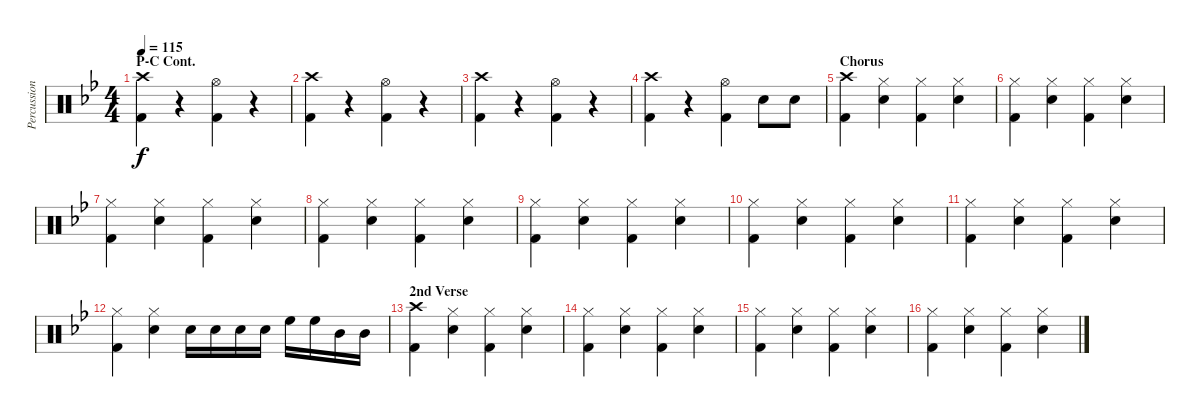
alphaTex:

\track ("Percussion" "Percussion") {instrument percussion}
\staff {score}
\articulation defaults
\ts (4 4)
\section ("" "P-C Cont.")
\tempo 115
\clef neutral
\ks bb
("Crash high (hit)" "Kick (hit) 2").4{dy f} r.4 ("Hi-Hat (open)" "Kick (hit) 2").4 r.4 |
("Crash high (hit)" "Kick (hit) 2").4 r.4 ("Hi-Hat (open)" "Kick (hit) 2").4 r.4 |
("Crash high (hit)" "Kick (hit) 2").4 r.4 ("Hi-Hat (open)" "Kick (hit) 2").4 r.4 |
("Crash high (hit)" "Kick (hit) 2").4 r.4 ("Hi-Hat (open)" "Kick (hit) 2").4 "Snare (hit) 2".8 "Snare (hit) 2".8 |
\section ("" "Chorus")
("Crash high (hit)" "Kick (hit) 2").4 ("Hi-Hat (closed)" "Snare (hit) 2").4 ("Hi-Hat (closed)" "Kick (hit) 2").4 ("Hi-Hat (closed)" "Snare (hit) 2").4 |
("Hi-Hat (closed)" "Kick (hit) 2").4 ("Hi-Hat (closed)" "Snare (hit) 2").4 ("Hi-Hat (closed)" "Kick (hit) 2").4 ("Hi-Hat (closed)" "Snare (hit) 2").4 |
("Hi-Hat (closed)" "Kick (hit) 2").4 ("Hi-Hat (closed)" "Snare (hit) 2").4 ("Hi-Hat (closed)" "Kick (hit) 2").4 ("Hi-Hat (closed)" "Snare (hit) 2").4 |
("Hi-Hat (closed)" "Kick (hit) 2").4 ("Hi-Hat (closed)" "Snare (hit) 2").4 ("Hi-Hat (closed)" "Kick (hit) 2").4 ("Hi-Hat (closed)" "Snare (hit) 2").4 |
("Hi-Hat (closed)" "Kick (hit) 2").4 ("Hi-Hat (closed)" "Snare (hit) 2").4 ("Hi-Hat (closed)" "Kick (hit) 2").4 ("Hi-Hat (closed)" "Snare (hit) 2").4 |
("Hi-Hat (closed)" "Kick (hit) 2").4 ("Hi-Hat (closed)" "Snare (hit) 2").4 ("Hi-Hat (closed)" "Kick (hit) 2").4 ("Hi-Hat (closed)" "Snare (hit) 2").4 |
("Hi-Hat (closed)" "Kick (hit) 2").4 ("Hi-Hat (closed)" "Snare (hit) 2").4 ("Hi-Hat (closed)" "Kick (hit) 2").4 ("Hi-Hat (closed)" "Snare (hit) 2").4 |
("Hi-Hat (closed)" "Kick (hit) 2").4 ("Hi-Hat (closed)" "Snare (hit) 2").4 "Snare (hit) 2".16 "Snare (hit) 2".16 "Snare (hit) 2".16 "Snare (hit) 2".16 "High Floor Tom (hit)".16 "High Floor Tom (hit)".16 "Mid Tom (hit)".16 "Mid Tom (hit)".16 |
\section ("" "2nd Verse")
("Crash high (hit)" "Kick (hit) 2").4 ("Hi-Hat (closed)" "Snare (hit) 2").4 ("Hi-Hat (closed)" "Kick (hit) 2").4 ("Hi-Hat (closed)" "Snare (hit) 2").4 |
("Hi-Hat (closed)" "Kick (hit) 2").4 ("Hi-Hat (closed)" "Snare (hit) 2").4 ("Hi-Hat (closed)" "Kick (hit) 2").4 ("Hi-Hat (closed)" "Snare (hit) 2").4 |
("Hi-Hat (closed)" "Kick (hit) 2").4 ("Hi-Hat (closed)" "Snare (hit) 2").4 ("Hi-Hat (closed)" "Kick (hit) 2").4 ("Hi-Hat (closed)" "Snare (hit) 2").4 |
("Hi-Hat (closed)" "Kick (hit) 2").4 ("Hi-Hat (closed)" "Snare (hit) 2").4 ("Hi-Hat (closed)" "Kick (hit) 2").4 ("Hi-Hat (closed)" "Snare (hit) 2").4
